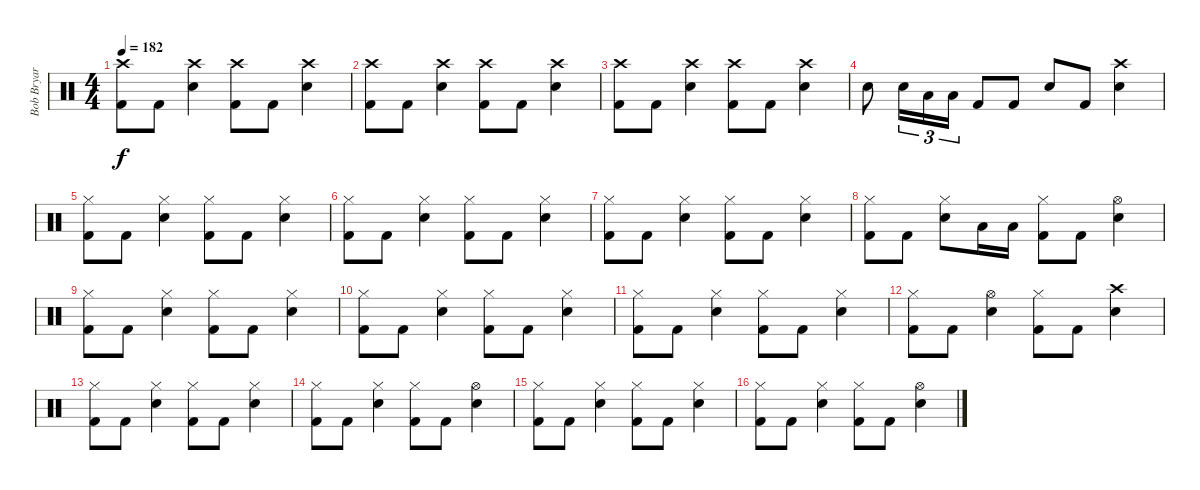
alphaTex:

\track ("Bob Bryar" "Bob Bryar") {instrument percussion}
\staff {score}
\articulation defaults
\ts (4 4)
\tempo 182
\clef neutral
\ks c
("Kick (hit) 2" "Crash high (hit)").8{dy f} "Kick (hit) 2".8 ("Snare (hit) 2" "Crash high (hit)").4 ("Kick (hit) 2" "Crash high (hit)").8 "Kick (hit) 2".8 ("Snare (hit) 2" "Crash high (hit)").4 |
("Kick (hit) 2" "Crash high (hit)").8 "Kick (hit) 2".8 ("Snare (hit) 2" "Crash high (hit)").4 ("Kick (hit) 2" "Crash high (hit)").8 "Kick (hit) 2".8 ("Snare (hit) 2" "Crash high (hit)").4 |
("Kick (hit) 2" "Crash high (hit)").8 "Kick (hit) 2".8 ("Snare (hit) 2" "Crash high (hit)").4 ("Kick (hit) 2" "Crash high (hit)").8 "Kick (hit) 2".8 ("Snare (hit) 2" "Crash high (hit)").4 |
"Snare (hit) 2".8 "Snare (hit) 2".16{tu (3 2)} "Low Tom (hit)".16{tu (3 2)} "Low Floor Tom (hit)".16{tu (3 2)} "Kick (hit) 2".8 "Kick (hit) 2".8 "Snare (hit) 2".8 "Kick (hit) 2".8 ("Crash high (hit)" "Snare (hit) 2").4 |
("Kick (hit) 2" "Hi-Hat (closed)").8 "Kick (hit) 2".8 ("Snare (hit) 2" "Hi-Hat (closed)").4 ("Kick (hit) 2" "Hi-Hat (closed)").8 "Kick (hit) 2".8 ("Snare (hit) 2" "Hi-Hat (closed)").4 |
("Kick (hit) 2" "Hi-Hat (closed)").8 "Kick (hit) 2".8 ("Snare (hit) 2" "Hi-Hat (closed)").4 ("Kick (hit) 2" "Hi-Hat (closed)").8 "Kick (hit) 2".8 ("Snare (hit) 2" "Hi-Hat (closed)").4 |
("Kick (hit) 2" "Hi-Hat (closed)").8 "Kick (hit) 2".8 ("Snare (hit) 2" "Hi-Hat (closed)").4 ("Kick (hit) 2" "Hi-Hat (closed)").8 "Kick (hit) 2".8 ("Snare (hit) 2" "Hi-Hat (closed)").4 |
("Kick (hit) 2" "Hi-Hat (closed)").8 "Kick (hit) 2".8 ("Snare (hit) 2" "Hi-Hat (closed)").8 "Low Tom (hit)".16 "Low Tom (hit)".16 ("Kick (hit) 2" "Hi-Hat (closed)").8 "Kick (hit) 2".8 ("Snare (hit) 2" "Hi-Hat (open)").4 |
("Kick (hit) 2" "Hi-Hat (closed)").8 "Kick (hit) 2".8 ("Snare (hit) 2" "Hi-Hat (closed)").4 ("Kick (hit) 2" "Hi-Hat (closed)").8 "Kick (hit) 2".8 ("Snare (hit) 2" "Hi-Hat (closed)").4 |
("Kick (hit) 2" "Hi-Hat (closed)").8 "Kick (hit) 2".8 ("Snare (hit) 2" "Hi-Hat (closed)").4 ("Kick (hit) 2" "Hi-Hat (closed)").8 "Kick (hit) 2".8 ("Snare (hit) 2" "Hi-Hat (closed)").4 |
("Kick (hit) 2" "Hi-Hat (closed)").8 "Kick (hit) 2".8 ("Snare (hit) 2" "Hi-Hat (closed)").4 ("Kick (hit) 2" "Hi-Hat (closed)").8 "Kick (hit) 2".8 ("Snare (hit) 2" "Hi-Hat (closed)").4 |
("Kick (hit) 2" "Hi-Hat (closed)").8 "Kick (hit) 2".8 ("Snare (hit) 2" "Hi-Hat (open)").4 ("Kick (hit) 2" "Hi-Hat (closed)").8 "Kick (hit) 2".8 ("Snare (hit) 2" "Crash high (hit)").4 |
("Kick (hit) 2" "Hi-Hat (closed)").8 "Kick (hit) 2".8 ("Snare (hit) 2" "Hi-Hat (closed)").4 ("Kick (hit) 2" "Hi-Hat (closed)").8 "Kick (hit) 2".8 ("Snare (hit) 2" "Hi-Hat (closed)").4 |
("Kick (hit) 2" "Hi-Hat (closed)").8 "Kick (hit) 2".8 ("Snare (hit) 2" "Hi-Hat (closed)").4 ("Kick (hit) 2" "Hi-Hat (closed)").8 "Kick (hit) 2".8 ("Snare (hit) 2" "Hi-Hat (open)").4 |
("Kick (hit) 2" "Hi-Hat (closed)").8 "Kick (hit) 2".8 ("Snare (hit) 2" "Hi-Hat (closed)").4 ("Kick (hit) 2" "Hi-Hat (closed)").8 "Kick (hit) 2".8 ("Snare (hit) 2" "Hi-Hat (closed)").4 |
("Kick (hit) 2" "Hi-Hat (closed)").8 "Kick (hit) 2".8 ("Snare (hit) 2" "Hi-Hat (closed)").4 ("Kick (hit) 2" "Hi-Hat (closed)").8 "Kick (hit) 2".8 ("Snare (hit) 2" "Hi-Hat (open)").4
